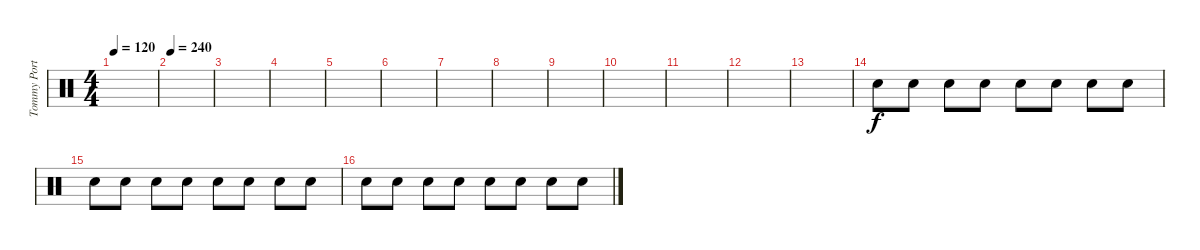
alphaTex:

\track ("Tommy Portimo " "Tommy Port") {instrument percussion}
\staff {score}
\articulation defaults
\ts (4 4)
\tempo 120
\clef neutral
\ks c
|
\tempo 240
|
|
|
|
|
|
|
|
|
|
|
|
"Electric Snare (hit)".8 "Electric Snare (hit)".8 "Electric Snare (hit)".8 "Electric Snare (hit)".8 "Electric Snare (hit)".8 "Electric Snare (hit)".8 "Electric Snare (hit)".8 "Electric Snare (hit)".8 |
"Electric Snare (hit)".8 "Electric Snare (hit)".8 "Electric Snare (hit)".8 "Electric Snare (hit)".8 "Electric Snare (hit)".8 "Electric Snare (hit)".8 "Electric Snare (hit)".8 "Electric Snare (hit)".8 |
"Electric Snare (hit)".8 "Electric Snare (hit)".8 "Electric Snare (hit)".8 "Electric Snare (hit)".8 "Electric Snare (hit)".8 "Electric Snare (hit)".8 "Electric Snare (hit)".8 "Electric Snare (hit)".8
